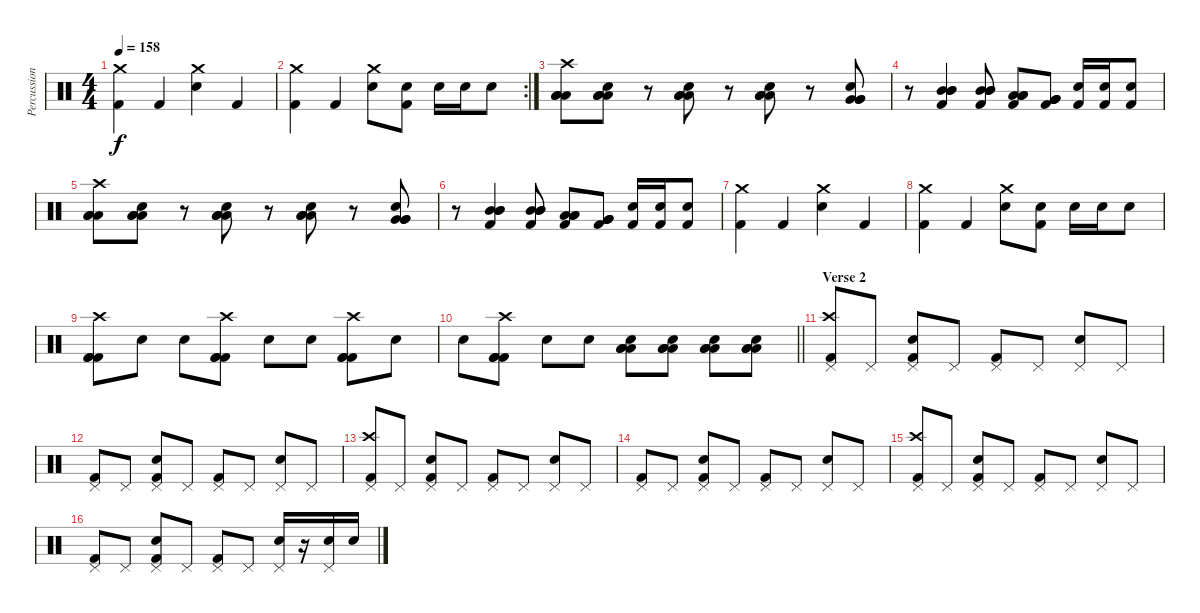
\track ("Percussion" "Percussion") {instrument percussion}
\staff {score}
\articulation defaults
\ts (4 4)
\tempo 158
\clef neutral
\ks c
("Crash medium (hit)" "Kick (hit) 2").4{dy f} "Kick (hit) 2".4 ("Crash medium (hit)" "Electric Snare (hit)").4 "Kick (hit) 2".4 |
\rc 2
("Crash medium (hit)" "Kick (hit) 2").4 "Kick (hit) 2".4 ("Crash medium (hit)" "Electric Snare (hit)").8 ("Electric Snare (hit)" "Kick (hit) 2").8 "Electric Snare (hit)".16 "Electric Snare (hit)".16 "Electric Snare (hit)".8 |
("Low Floor Tom (hit)" "Low Floor Tom (hit)" "Low Floor Tom (hit)" "Crash high (hit)").8 ("Low Floor Tom (hit)" "Low Floor Tom (hit)" "Low Floor Tom (hit)" "Electric Snare (hit)").8 r.8 ("Low Floor Tom (hit)" "Low Floor Tom (hit)" "Low Floor Tom (hit)" "Electric Snare (hit)").8 r.8 ("Low Floor Tom (hit)" "Low Floor Tom (hit)" "Low Floor Tom (hit)" "Electric Snare (hit)").8 r.8 ("Very Low Tom (hit)" "Very Low Tom (hit)" "Very Low Tom (hit)" "Electric Snare (hit)").8 |
r.8 ("Mid Tom (hit)" "Mid Tom (hit)" "Mid Tom (hit)" "Kick (hit) 2").4 ("Mid Tom (hit)" "Mid Tom (hit)" "Mid Tom (hit)" "Kick (hit) 2").8 ("Low Floor Tom (hit)" "Low Floor Tom (hit)" "Low Floor Tom (hit)" "Kick (hit) 2").8 ("Very Low Tom (hit)" "Very Low Tom (hit)" "Very Low Tom (hit)" "Kick (hit) 2").8 ("Electric Snare (hit)" "Kick (hit) 2").16 ("Electric Snare (hit)" "Kick (hit) 2").16 ("Electric Snare (hit)" "Kick (hit) 2").8 |
("Low Floor Tom (hit)" "Low Floor Tom (hit)" "Low Floor Tom (hit)" "Crash high (hit)").8 ("Low Floor Tom (hit)" "Low Floor Tom (hit)" "Low Floor Tom (hit)" "Electric Snare (hit)").8 r.8 ("Low Floor Tom (hit)" "Low Floor Tom (hit)" "Low Floor Tom (hit)" "Electric Snare (hit)").8 r.8 ("Low Floor Tom (hit)" "Low Floor Tom (hit)" "Low Floor Tom (hit)" "Electric Snare (hit)").8 r.8 ("Very Low Tom (hit)" "Very Low Tom (hit)" "Very Low Tom (hit)" "Electric Snare (hit)").8 |
r.8 ("Mid Tom (hit)" "Mid Tom (hit)" "Mid Tom (hit)" "Kick (hit) 2").4 ("Mid Tom (hit)" "Mid Tom (hit)" "Mid Tom (hit)" "Kick (hit) 2").8 ("Low Floor Tom (hit)" "Low Floor Tom (hit)" "Low Floor Tom (hit)" "Kick (hit) 2").8 ("Very Low Tom (hit)" "Very Low Tom (hit)" "Very Low Tom (hit)" "Kick (hit) 2").8 ("Electric Snare (hit)" "Kick (hit) 2").16 ("Electric Snare (hit)" "Kick (hit) 2").16 ("Electric Snare (hit)" "Kick (hit) 2").8 |
("Crash medium (hit)" "Kick (hit) 2").4 "Kick (hit) 2".4 ("Crash medium (hit)" "Electric Snare (hit)").4 "Kick (hit) 2".4 |
("Crash medium (hit)" "Kick (hit) 2").4 "Kick (hit) 2".4 ("Crash medium (hit)" "Electric Snare (hit)").8 ("Electric Snare (hit)" "Kick (hit) 2").8 "Electric Snare (hit)".16 "Electric Snare (hit)".16 "Electric Snare (hit)".8 |
("Crash high (hit)" "Kick (hit) 2" "Kick (hit) 2" "Kick (hit) 2").8 "Electric Snare (hit)".8 "Electric Snare (hit)".8 ("Crash high (hit)" "Kick (hit) 2" "Kick (hit) 2" "Kick (hit) 2").8 "Electric Snare (hit)".8 "Electric Snare (hit)".8 ("Crash high (hit)" "Kick (hit) 2" "Kick (hit) 2" "Kick (hit) 2").8 "Electric Snare (hit)".8 |
\barLineRight lightlight "Electric Snare (hit)".8
("Crash high (hit)" "Kick (hit) 2" "Kick (hit) 2" "Kick (hit) 2").8 "Electric Snare (hit)".8 "Electric Snare (hit)".8 ("Low Floor Tom (hit)" "Low Floor Tom (hit)" "Low Floor Tom (hit)" "Electric Snare (hit)").8 ("Low Floor Tom (hit)" "Low Floor Tom (hit)" "Low Floor Tom (hit)" "Electric Snare (hit)").8 ("Low Floor Tom (hit)" "Low Floor Tom (hit)" "Low Floor Tom (hit)" "Electric Snare (hit)").8 ("Low Floor Tom (hit)" "Low Floor Tom (hit)" "Low Floor Tom (hit)" "Electric Snare (hit)").8 |
\section ("" "Verse 2")
("Crash high (hit)" "Pedal Hi-Hat (hit)" "Kick (hit) 2").8 "Pedal Hi-Hat (hit)".8 ("Pedal Hi-Hat (hit)" "Electric Snare (hit)" "Kick (hit) 2").8 "Pedal Hi-Hat (hit)".8 ("Pedal Hi-Hat (hit)" "Kick (hit) 2").8 "Pedal Hi-Hat (hit)".8 ("Pedal Hi-Hat (hit)" "Electric Snare (hit)").8 "Pedal Hi-Hat (hit)".8 |
("Pedal Hi-Hat (hit)" "Kick (hit) 2").8 "Pedal Hi-Hat (hit)".8 ("Pedal Hi-Hat (hit)" "Electric Snare (hit)" "Kick (hit) 2").8 "Pedal Hi-Hat (hit)".8 ("Pedal Hi-Hat (hit)" "Kick (hit) 2").8 "Pedal Hi-Hat (hit)".8 ("Pedal Hi-Hat (hit)" "Electric Snare (hit)").8 "Pedal Hi-Hat (hit)".8 |
("Crash high (hit)" "Pedal Hi-Hat (hit)" "Kick (hit) 2").8 "Pedal Hi-Hat (hit)".8 ("Pedal Hi-Hat (hit)" "Electric Snare (hit)" "Kick (hit) 2").8 "Pedal Hi-Hat (hit)".8 ("Pedal Hi-Hat (hit)" "Kick (hit) 2").8 "Pedal Hi-Hat (hit)".8 ("Pedal Hi-Hat (hit)" "Electric Snare (hit)").8 "Pedal Hi-Hat (hit)".8 |
("Pedal Hi-Hat (hit)" "Kick (hit) 2").8 "Pedal Hi-Hat (hit)".8 ("Pedal Hi-Hat (hit)" "Electric Snare (hit)" "Kick (hit) 2").8 "Pedal Hi-Hat (hit)".8 ("Pedal Hi-Hat (hit)" "Kick (hit) 2").8 "Pedal Hi-Hat (hit)".8 ("Pedal Hi-Hat (hit)" "Electric Snare (hit)").8 "Pedal Hi-Hat (hit)".8 |
("Crash high (hit)" "Pedal Hi-Hat (hit)" "Kick (hit) 2").8 "Pedal Hi-Hat (hit)".8 ("Pedal Hi-Hat (hit)" "Electric Snare (hit)" "Kick (hit) 2").8 "Pedal Hi-Hat (hit)".8 ("Pedal Hi-Hat (hit)" "Kick (hit) 2").8 "Pedal Hi-Hat (hit)".8 ("Pedal Hi-Hat (hit)" "Electric Snare (hit)").8 "Pedal Hi-Hat (hit)".8 |
("Pedal Hi-Hat (hit)" "Kick (hit) 2").8 "Pedal Hi-Hat (hit)".8 ("Pedal Hi-Hat (hit)" "Electric Snare (hit)" "Kick (hit) 2").8 "Pedal Hi-Hat (hit)".8 ("Pedal Hi-Hat (hit)" "Kick (hit) 2").8 "Pedal Hi-Hat (hit)".8 ("Pedal Hi-Hat (hit)" "Electric Snare (hit)").16 r.16 ("Pedal Hi-Hat (hit)" "Electric Snare (hit)").16 "Electric Snare (hit)".16
